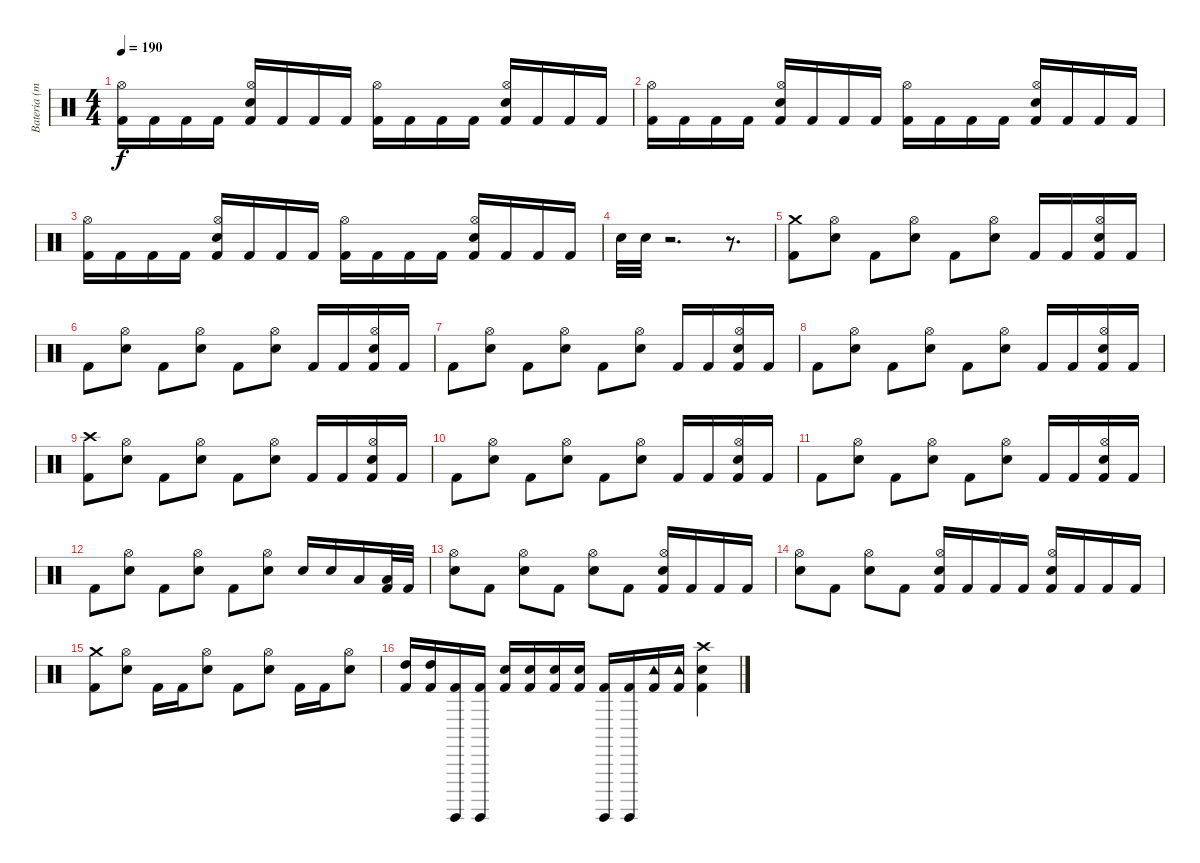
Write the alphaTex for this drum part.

\track ("Bateria (mestre Aquiles Priester)" "Bateria (m") {instrument percussion}
\staff {score}
\articulation defaults
\ts (4 4)
\tempo 190
\clef neutral
\ks c
("Kick (hit) 2" "Hi-Hat (open)").16{dy f} "Kick (hit) 2".16 "Kick (hit) 2".16 "Kick (hit) 2".16 ("Kick (hit) 2" "Electric Snare (hit)" "Hi-Hat (open)").16 "Kick (hit) 2".16 "Kick (hit) 2".16 "Kick (hit) 2".16 ("Kick (hit) 2" "Hi-Hat (open)").16 "Kick (hit) 2".16 "Kick (hit) 2".16 "Kick (hit) 2".16 ("Kick (hit) 2" "Electric Snare (hit)" "Hi-Hat (open)").16 "Kick (hit) 2".16 "Kick (hit) 2".16 "Kick (hit) 2".16 |
("Kick (hit) 2" "Hi-Hat (open)").16 "Kick (hit) 2".16 "Kick (hit) 2".16 "Kick (hit) 2".16 ("Kick (hit) 2" "Electric Snare (hit)" "Hi-Hat (open)").16 "Kick (hit) 2".16 "Kick (hit) 2".16 "Kick (hit) 2".16 ("Kick (hit) 2" "Hi-Hat (open)").16 "Kick (hit) 2".16 "Kick (hit) 2".16 "Kick (hit) 2".16 ("Kick (hit) 2" "Electric Snare (hit)" "Hi-Hat (open)").16 "Kick (hit) 2".16 "Kick (hit) 2".16 "Kick (hit) 2".16 |
("Kick (hit) 2" "Hi-Hat (open)").16 "Kick (hit) 2".16 "Kick (hit) 2".16 "Kick (hit) 2".16 ("Kick (hit) 2" "Electric Snare (hit)" "Hi-Hat (open)").16 "Kick (hit) 2".16 "Kick (hit) 2".16 "Kick (hit) 2".16 ("Kick (hit) 2" "Hi-Hat (open)").16 "Kick (hit) 2".16 "Kick (hit) 2".16 "Kick (hit) 2".16 ("Kick (hit) 2" "Electric Snare (hit)" "Hi-Hat (open)").16 "Kick (hit) 2".16 "Kick (hit) 2".16 "Kick (hit) 2".16 |
"Electric Snare (hit)".32 "Electric Snare (hit)".32 r.2{d} r.8{d} |
("Kick (hit) 2" "Crash medium (hit)").8 ("Electric Snare (hit)" "Hi-Hat (open)").8 "Kick (hit) 2".8 ("Electric Snare (hit)" "Hi-Hat (open)").8 "Kick (hit) 2".8 ("Electric Snare (hit)" "Hi-Hat (open)").8 "Kick (hit) 2".16 "Kick (hit) 2".16 ("Kick (hit) 2" "Electric Snare (hit)" "Hi-Hat (open)").16 "Kick (hit) 2".16 |
"Kick (hit) 2".8 ("Electric Snare (hit)" "Hi-Hat (open)").8 "Kick (hit) 2".8 ("Electric Snare (hit)" "Hi-Hat (open)").8 "Kick (hit) 2".8 ("Electric Snare (hit)" "Hi-Hat (open)").8 "Kick (hit) 2".16 "Kick (hit) 2".16 ("Kick (hit) 2" "Electric Snare (hit)" "Hi-Hat (open)").16 "Kick (hit) 2".16 |
"Kick (hit) 2".8 ("Electric Snare (hit)" "Hi-Hat (open)").8 "Kick (hit) 2".8 ("Electric Snare (hit)" "Hi-Hat (open)").8 "Kick (hit) 2".8 ("Electric Snare (hit)" "Hi-Hat (open)").8 "Kick (hit) 2".16 "Kick (hit) 2".16 ("Kick (hit) 2" "Electric Snare (hit)" "Hi-Hat (open)").16 "Kick (hit) 2".16 |
"Kick (hit) 2".8 ("Electric Snare (hit)" "Hi-Hat (open)").8 "Kick (hit) 2".8 ("Electric Snare (hit)" "Hi-Hat (open)").8 "Kick (hit) 2".8 ("Electric Snare (hit)" "Hi-Hat (open)").8 "Kick (hit) 2".16 "Kick (hit) 2".16 ("Kick (hit) 2" "Electric Snare (hit)" "Hi-Hat (open)").16 "Kick (hit) 2".16 |
("Kick (hit) 2" "Crash high (hit)").8 ("Electric Snare (hit)" "Hi-Hat (open)").8 "Kick (hit) 2".8 ("Electric Snare (hit)" "Hi-Hat (open)").8 "Kick (hit) 2".8 ("Electric Snare (hit)" "Hi-Hat (open)").8 "Kick (hit) 2".16 "Kick (hit) 2".16 ("Kick (hit) 2" "Electric Snare (hit)" "Hi-Hat (open)").16 "Kick (hit) 2".16 |
"Kick (hit) 2".8 ("Electric Snare (hit)" "Hi-Hat (open)").8 "Kick (hit) 2".8 ("Electric Snare (hit)" "Hi-Hat (open)").8 "Kick (hit) 2".8 ("Electric Snare (hit)" "Hi-Hat (open)").8 "Kick (hit) 2".16 "Kick (hit) 2".16 ("Kick (hit) 2" "Electric Snare (hit)" "Hi-Hat (open)").16 "Kick (hit) 2".16 |
"Kick (hit) 2".8 ("Electric Snare (hit)" "Hi-Hat (open)").8 "Kick (hit) 2".8 ("Electric Snare (hit)" "Hi-Hat (open)").8 "Kick (hit) 2".8 ("Electric Snare (hit)" "Hi-Hat (open)").8 "Kick (hit) 2".16 "Kick (hit) 2".16 ("Kick (hit) 2" "Electric Snare (hit)" "Hi-Hat (open)").16 "Kick (hit) 2".16 |
"Kick (hit) 2".8 ("Electric Snare (hit)" "Hi-Hat (open)").8 "Kick (hit) 2".8 ("Electric Snare (hit)" "Hi-Hat (open)").8 "Kick (hit) 2".8 ("Electric Snare (hit)" "Hi-Hat (open)").8 "Electric Snare (hit)".16 "Electric Snare (hit)".16 "Low Tom (hit)".16 ("Kick (hit) 2" "Low Tom (hit)").32 "Kick (hit) 2".32 |
("Electric Snare (hit)" "Hi-Hat (open)").8 "Kick (hit) 2".8 ("Electric Snare (hit)" "Hi-Hat (open)").8 "Kick (hit) 2".8 ("Electric Snare (hit)" "Hi-Hat (open)").8 "Kick (hit) 2".8 ("Kick (hit) 2" "Electric Snare (hit)" "Hi-Hat (open)").16 "Kick (hit) 2".16 "Kick (hit) 2".16 "Kick (hit) 2".16 |
("Electric Snare (hit)" "Hi-Hat (open)").8 "Kick (hit) 2".8 ("Electric Snare (hit)" "Hi-Hat (open)").8 "Kick (hit) 2".8 ("Kick (hit) 2" "Electric Snare (hit)" "Hi-Hat (open)").16 "Kick (hit) 2".16 "Kick (hit) 2".16 "Kick (hit) 2".16 ("Kick (hit) 2" "Electric Snare (hit)" "Hi-Hat (open)").16 "Kick (hit) 2".16 "Kick (hit) 2".16 "Kick (hit) 2".16 |
("Kick (hit) 2" "Crash medium (hit)").8 ("Electric Snare (hit)" "Hi-Hat (open)").8 "Kick (hit) 2".16 "Kick (hit) 2".16 ("Electric Snare (hit)" "Hi-Hat (open)").8 "Kick (hit) 2".8 ("Electric Snare (hit)" "Hi-Hat (open)").8 "Kick (hit) 2".16 "Kick (hit) 2".16 ("Electric Snare (hit)" "Hi-Hat (open)").8 |
("Kick (hit) 2" "High Tom (hit)").16 ("Kick (hit) 2" "High Tom (hit)").16 ("Kick (hit) 2" "Surdo (hit)").16 ("Kick (hit) 2" "Surdo (hit)").16 ("Kick (hit) 2" "Electric Snare (hit)").16 ("Kick (hit) 2" "Electric Snare (hit)").16 ("Kick (hit) 2" "Electric Snare (hit)").16 ("Kick (hit) 2" "Electric Snare (hit)").16 ("Kick (hit) 2" "Surdo (hit)").16 ("Kick (hit) 2" "Surdo (hit)").16 ("Kick (hit) 2" "Tambourine (hit)").16 ("Kick (hit) 2" "Tambourine (hit)").16 ("Kick (hit) 2" "Electric Snare (hit)" "Crash high (hit)").4
